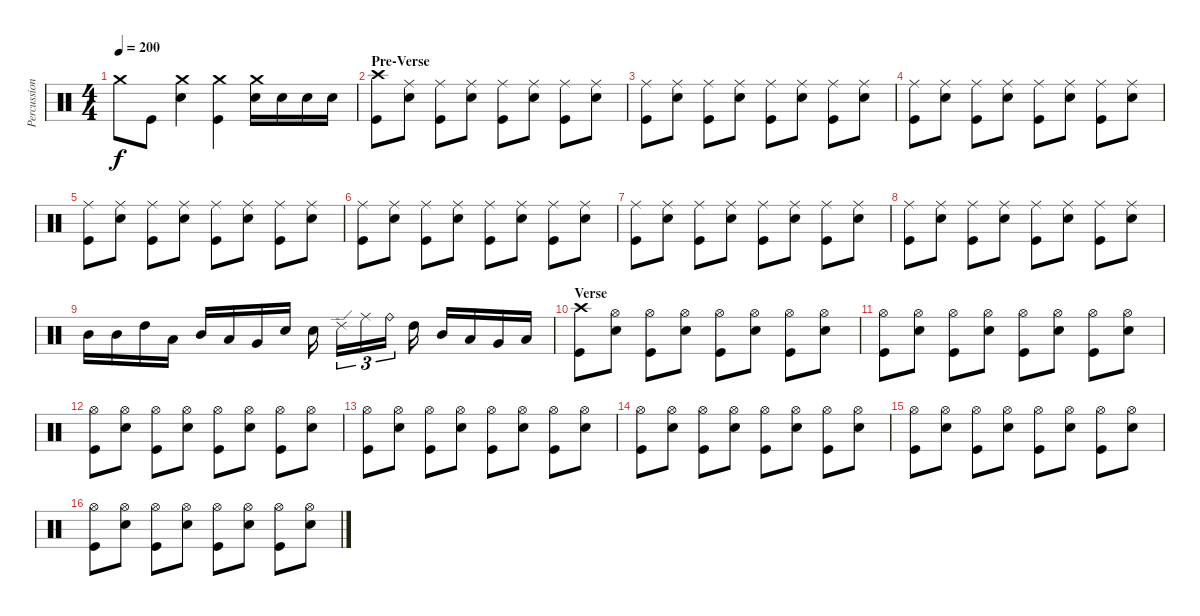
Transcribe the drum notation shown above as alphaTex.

\track ("Percussion" "Percussion") {instrument percussion}
\staff {score}
\articulation defaults
\ts (4 4)
\tempo 200
\clef neutral
\ks c "Crash medium (hit)".8{dy f} "Kick (hit)".8
("Crash medium (hit)" "Electric Snare (hit)").4 ("Crash medium (hit)" "Kick (hit)").4 ("Crash medium (hit)" "Electric Snare (hit)").16 "Electric Snare (hit)".16 "Electric Snare (hit)".16 "Electric Snare (hit)".16 |
\section ("" "Pre-Verse")
("Crash high (hit)" "Kick (hit)").8 ("Ride (middle)" "Electric Snare (hit)").8 ("Ride (middle)" "Kick (hit)").8 ("Ride (middle)" "Electric Snare (hit)").8 ("Ride (middle)" "Kick (hit)").8 ("Ride (middle)" "Electric Snare (hit)").8 ("Ride (middle)" "Kick (hit)").8 ("Ride (middle)" "Electric Snare (hit)").8 |
("Ride (middle)" "Kick (hit)").8 ("Ride (middle)" "Electric Snare (hit)").8 ("Ride (middle)" "Kick (hit)").8 ("Ride (middle)" "Electric Snare (hit)").8 ("Ride (middle)" "Kick (hit)").8 ("Ride (middle)" "Electric Snare (hit)").8 ("Ride (middle)" "Kick (hit)").8 ("Ride (middle)" "Electric Snare (hit)").8 |
("Ride (middle)" "Kick (hit)").8 ("Ride (middle)" "Electric Snare (hit)").8 ("Ride (middle)" "Kick (hit)").8 ("Ride (middle)" "Electric Snare (hit)").8 ("Ride (middle)" "Kick (hit)").8 ("Ride (middle)" "Electric Snare (hit)").8 ("Ride (middle)" "Kick (hit)").8 ("Ride (middle)" "Electric Snare (hit)").8 |
("Ride (middle)" "Kick (hit)").8 ("Ride (middle)" "Electric Snare (hit)").8 ("Ride (middle)" "Kick (hit)").8 ("Ride (middle)" "Electric Snare (hit)").8 ("Ride (middle)" "Kick (hit)").8 ("Ride (middle)" "Electric Snare (hit)").8 ("Ride (middle)" "Kick (hit)").8 ("Ride (middle)" "Electric Snare (hit)").8 |
("Ride (middle)" "Kick (hit)").8 ("Ride (middle)" "Electric Snare (hit)").8 ("Ride (middle)" "Kick (hit)").8 ("Ride (middle)" "Electric Snare (hit)").8 ("Ride (middle)" "Kick (hit)").8 ("Ride (middle)" "Electric Snare (hit)").8 ("Ride (middle)" "Kick (hit)").8 ("Ride (middle)" "Electric Snare (hit)").8 |
("Ride (middle)" "Kick (hit)").8 ("Ride (middle)" "Electric Snare (hit)").8 ("Ride (middle)" "Kick (hit)").8 ("Ride (middle)" "Electric Snare (hit)").8 ("Ride (middle)" "Kick (hit)").8 ("Ride (middle)" "Electric Snare (hit)").8 ("Ride (middle)" "Kick (hit)").8 ("Ride (middle)" "Electric Snare (hit)").8 |
("Ride (middle)" "Kick (hit)").8 ("Ride (middle)" "Electric Snare (hit)").8 ("Ride (middle)" "Kick (hit)").8 ("Ride (middle)" "Electric Snare (hit)").8 ("Ride (middle)" "Kick (hit)").8 ("Ride (middle)" "Electric Snare (hit)").8 ("Ride (middle)" "Kick (hit)").8 ("Ride (middle)" "Electric Snare (hit)").8 |
"Mid Tom (hit)".16 "Mid Tom (hit)".16 "High Tom (hit)".16 "Low Tom (hit)".16 "Mid Tom (hit)".16 "Low Tom (hit)".16 "Very Low Tom (hit)".16 "Electric Snare (hit)".16 "Electric Snare (hit)".16 "Ride (edge) 2".16{tu (3 2)} "Ride (middle)".16{tu (3 2)} "Ride (bell)".16{tu (3 2)} "High Tom (hit)".16 "Mid Tom (hit)".16 "Low Tom (hit)".16 "Very Low Tom (hit)".16 "Low Floor Tom (hit)".16 |
\section ("" "Verse")
("Crash high (hit)" "Kick (hit)").8 ("Hi-Hat (open)" "Electric Snare (hit)").8 ("Hi-Hat (open)" "Kick (hit)").8 ("Hi-Hat (open)" "Electric Snare (hit)").8 ("Hi-Hat (open)" "Kick (hit)").8 ("Hi-Hat (open)" "Electric Snare (hit)").8 ("Hi-Hat (open)" "Kick (hit)").8 ("Hi-Hat (open)" "Electric Snare (hit)").8 |
("Hi-Hat (open)" "Kick (hit)").8 ("Hi-Hat (open)" "Electric Snare (hit)").8 ("Hi-Hat (open)" "Kick (hit)").8 ("Hi-Hat (open)" "Electric Snare (hit)").8 ("Hi-Hat (open)" "Kick (hit)").8 ("Hi-Hat (open)" "Electric Snare (hit)").8 ("Hi-Hat (open)" "Kick (hit)").8 ("Hi-Hat (open)" "Electric Snare (hit)").8 |
("Hi-Hat (open)" "Kick (hit)").8 ("Hi-Hat (open)" "Electric Snare (hit)").8 ("Hi-Hat (open)" "Kick (hit)").8 ("Hi-Hat (open)" "Electric Snare (hit)").8 ("Hi-Hat (open)" "Kick (hit)").8 ("Hi-Hat (open)" "Electric Snare (hit)").8 ("Hi-Hat (open)" "Kick (hit)").8 ("Hi-Hat (open)" "Electric Snare (hit)").8 |
("Hi-Hat (open)" "Kick (hit)").8 ("Hi-Hat (open)" "Electric Snare (hit)").8 ("Hi-Hat (open)" "Kick (hit)").8 ("Hi-Hat (open)" "Electric Snare (hit)").8 ("Hi-Hat (open)" "Kick (hit)").8 ("Hi-Hat (open)" "Electric Snare (hit)").8 ("Hi-Hat (open)" "Kick (hit)").8 ("Hi-Hat (open)" "Electric Snare (hit)").8 |
("Hi-Hat (open)" "Kick (hit)").8 ("Hi-Hat (open)" "Electric Snare (hit)").8 ("Hi-Hat (open)" "Kick (hit)").8 ("Hi-Hat (open)" "Electric Snare (hit)").8 ("Hi-Hat (open)" "Kick (hit)").8 ("Hi-Hat (open)" "Electric Snare (hit)").8 ("Hi-Hat (open)" "Kick (hit)").8 ("Hi-Hat (open)" "Electric Snare (hit)").8 |
("Hi-Hat (open)" "Kick (hit)").8 ("Hi-Hat (open)" "Electric Snare (hit)").8 ("Hi-Hat (open)" "Kick (hit)").8 ("Hi-Hat (open)" "Electric Snare (hit)").8 ("Hi-Hat (open)" "Kick (hit)").8 ("Hi-Hat (open)" "Electric Snare (hit)").8 ("Hi-Hat (open)" "Kick (hit)").8 ("Hi-Hat (open)" "Electric Snare (hit)").8 |
("Hi-Hat (open)" "Kick (hit)").8 ("Hi-Hat (open)" "Electric Snare (hit)").8 ("Hi-Hat (open)" "Kick (hit)").8 ("Hi-Hat (open)" "Electric Snare (hit)").8 ("Hi-Hat (open)" "Kick (hit)").8 ("Hi-Hat (open)" "Electric Snare (hit)").8 ("Hi-Hat (open)" "Kick (hit)").8 ("Hi-Hat (open)" "Electric Snare (hit)").8
